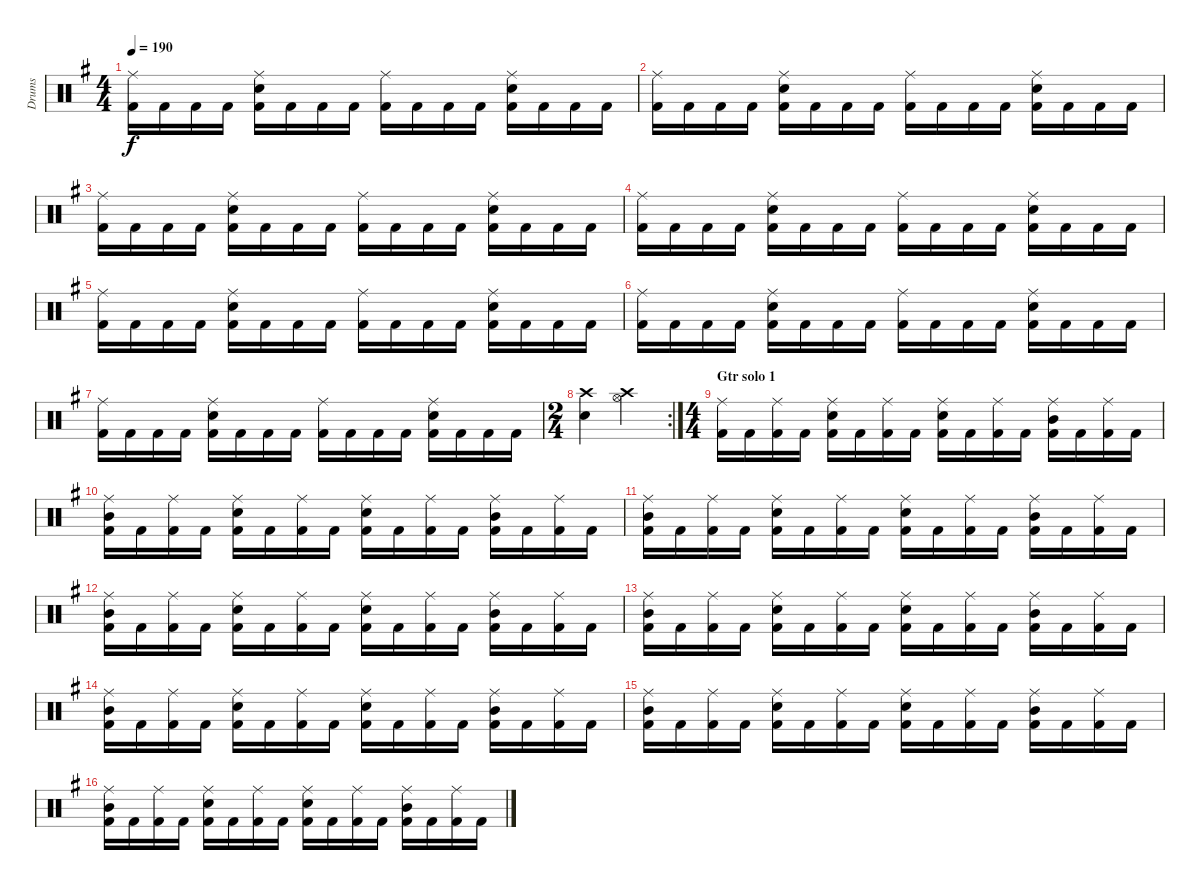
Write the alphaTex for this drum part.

\track ("Drums" "Drums") {instrument percussion}
\staff {score}
\articulation defaults
\ts (4 4)
\tempo 190
\clef neutral
\ks eminor
("Ride (middle)" "Kick (hit) 2").16{dy f} "Kick (hit) 2".16 "Kick (hit) 2".16 "Kick (hit) 2".16 ("Ride (middle)" "Electric Snare (hit)" "Kick (hit) 2").16 "Kick (hit) 2".16 "Kick (hit) 2".16 "Kick (hit) 2".16 ("Ride (middle)" "Kick (hit) 2").16 "Kick (hit) 2".16 "Kick (hit) 2".16 "Kick (hit) 2".16 ("Ride (middle)" "Electric Snare (hit)" "Kick (hit) 2").16 "Kick (hit) 2".16 "Kick (hit) 2".16 "Kick (hit) 2".16 |
("Ride (middle)" "Kick (hit) 2").16 "Kick (hit) 2".16 "Kick (hit) 2".16 "Kick (hit) 2".16 ("Ride (middle)" "Electric Snare (hit)" "Kick (hit) 2").16 "Kick (hit) 2".16 "Kick (hit) 2".16 "Kick (hit) 2".16 ("Ride (middle)" "Kick (hit) 2").16 "Kick (hit) 2".16 "Kick (hit) 2".16 "Kick (hit) 2".16 ("Ride (middle)" "Electric Snare (hit)" "Kick (hit) 2").16 "Kick (hit) 2".16 "Kick (hit) 2".16 "Kick (hit) 2".16 |
("Ride (middle)" "Kick (hit) 2").16 "Kick (hit) 2".16 "Kick (hit) 2".16 "Kick (hit) 2".16 ("Ride (middle)" "Electric Snare (hit)" "Kick (hit) 2").16 "Kick (hit) 2".16 "Kick (hit) 2".16 "Kick (hit) 2".16 ("Ride (middle)" "Kick (hit) 2").16 "Kick (hit) 2".16 "Kick (hit) 2".16 "Kick (hit) 2".16 ("Ride (middle)" "Electric Snare (hit)" "Kick (hit) 2").16 "Kick (hit) 2".16 "Kick (hit) 2".16 "Kick (hit) 2".16 |
("Ride (middle)" "Kick (hit) 2").16 "Kick (hit) 2".16 "Kick (hit) 2".16 "Kick (hit) 2".16 ("Ride (middle)" "Electric Snare (hit)" "Kick (hit) 2").16 "Kick (hit) 2".16 "Kick (hit) 2".16 "Kick (hit) 2".16 ("Ride (middle)" "Kick (hit) 2").16 "Kick (hit) 2".16 "Kick (hit) 2".16 "Kick (hit) 2".16 ("Ride (middle)" "Electric Snare (hit)" "Kick (hit) 2").16 "Kick (hit) 2".16 "Kick (hit) 2".16 "Kick (hit) 2".16 |
("Ride (middle)" "Kick (hit) 2").16 "Kick (hit) 2".16 "Kick (hit) 2".16 "Kick (hit) 2".16 ("Ride (middle)" "Electric Snare (hit)" "Kick (hit) 2").16 "Kick (hit) 2".16 "Kick (hit) 2".16 "Kick (hit) 2".16 ("Ride (middle)" "Kick (hit) 2").16 "Kick (hit) 2".16 "Kick (hit) 2".16 "Kick (hit) 2".16 ("Ride (middle)" "Electric Snare (hit)" "Kick (hit) 2").16 "Kick (hit) 2".16 "Kick (hit) 2".16 "Kick (hit) 2".16 |
("Ride (middle)" "Kick (hit) 2").16 "Kick (hit) 2".16 "Kick (hit) 2".16 "Kick (hit) 2".16 ("Ride (middle)" "Electric Snare (hit)" "Kick (hit) 2").16 "Kick (hit) 2".16 "Kick (hit) 2".16 "Kick (hit) 2".16 ("Ride (middle)" "Kick (hit) 2").16 "Kick (hit) 2".16 "Kick (hit) 2".16 "Kick (hit) 2".16 ("Ride (middle)" "Electric Snare (hit)" "Kick (hit) 2").16 "Kick (hit) 2".16 "Kick (hit) 2".16 "Kick (hit) 2".16 |
("Ride (middle)" "Kick (hit) 2").16 "Kick (hit) 2".16 "Kick (hit) 2".16 "Kick (hit) 2".16 ("Ride (middle)" "Electric Snare (hit)" "Kick (hit) 2").16 "Kick (hit) 2".16 "Kick (hit) 2".16 "Kick (hit) 2".16 ("Ride (middle)" "Kick (hit) 2").16 "Kick (hit) 2".16 "Kick (hit) 2".16 "Kick (hit) 2".16 ("Ride (middle)" "Electric Snare (hit)" "Kick (hit) 2").16 "Kick (hit) 2".16 "Kick (hit) 2".16 "Kick (hit) 2".16 |
\rc 2
\ts (2 4)
("Crash high (hit)" "Electric Snare (hit)").4 ("Crash high (hit)" "Hi-Hat (open)").4 |
\ts (4 4)
\section ("" "Gtr solo 1")
("Ride (middle)" "Kick (hit) 2").16 "Kick (hit) 2".16 ("Ride (middle)" "Kick (hit) 2").16 "Kick (hit) 2".16 ("Ride (middle)" "Electric Snare (hit)" "Kick (hit) 2").16 "Kick (hit) 2".16 ("Ride (middle)" "Kick (hit) 2").16 "Kick (hit) 2".16 ("Ride (middle)" "Electric Snare (hit)" "Kick (hit) 2").16 "Kick (hit) 2".16 ("Ride (middle)" "Kick (hit) 2").16 "Kick (hit) 2".16 ("Ride (middle)" "Mid Tom (hit)" "Kick (hit) 2").16 "Kick (hit) 2".16 ("Ride (middle)" "Kick (hit) 2").16 "Kick (hit) 2".16 |
("Ride (middle)" "Mid Tom (hit)" "Kick (hit) 2").16 "Kick (hit) 2".16 ("Ride (middle)" "Kick (hit) 2").16 "Kick (hit) 2".16 ("Ride (middle)" "Electric Snare (hit)" "Kick (hit) 2").16 "Kick (hit) 2".16 ("Ride (middle)" "Kick (hit) 2").16 "Kick (hit) 2".16 ("Ride (middle)" "Electric Snare (hit)" "Kick (hit) 2").16 "Kick (hit) 2".16 ("Ride (middle)" "Kick (hit) 2").16 "Kick (hit) 2".16 ("Ride (middle)" "Mid Tom (hit)" "Kick (hit) 2").16 "Kick (hit) 2".16 ("Ride (middle)" "Kick (hit) 2").16 "Kick (hit) 2".16 |
("Ride (middle)" "Mid Tom (hit)" "Kick (hit) 2").16 "Kick (hit) 2".16 ("Ride (middle)" "Kick (hit) 2").16 "Kick (hit) 2".16 ("Ride (middle)" "Electric Snare (hit)" "Kick (hit) 2").16 "Kick (hit) 2".16 ("Ride (middle)" "Kick (hit) 2").16 "Kick (hit) 2".16 ("Ride (middle)" "Electric Snare (hit)" "Kick (hit) 2").16 "Kick (hit) 2".16 ("Ride (middle)" "Kick (hit) 2").16 "Kick (hit) 2".16 ("Ride (middle)" "Mid Tom (hit)" "Kick (hit) 2").16 "Kick (hit) 2".16 ("Ride (middle)" "Kick (hit) 2").16 "Kick (hit) 2".16 |
("Ride (middle)" "Mid Tom (hit)" "Kick (hit) 2").16 "Kick (hit) 2".16 ("Ride (middle)" "Kick (hit) 2").16 "Kick (hit) 2".16 ("Ride (middle)" "Electric Snare (hit)" "Kick (hit) 2").16 "Kick (hit) 2".16 ("Ride (middle)" "Kick (hit) 2").16 "Kick (hit) 2".16 ("Ride (middle)" "Electric Snare (hit)" "Kick (hit) 2").16 "Kick (hit) 2".16 ("Ride (middle)" "Kick (hit) 2").16 "Kick (hit) 2".16 ("Ride (middle)" "Mid Tom (hit)" "Kick (hit) 2").16 "Kick (hit) 2".16 ("Ride (middle)" "Kick (hit) 2").16 "Kick (hit) 2".16 |
("Ride (middle)" "Mid Tom (hit)" "Kick (hit) 2").16 "Kick (hit) 2".16 ("Ride (middle)" "Kick (hit) 2").16 "Kick (hit) 2".16 ("Ride (middle)" "Electric Snare (hit)" "Kick (hit) 2").16 "Kick (hit) 2".16 ("Ride (middle)" "Kick (hit) 2").16 "Kick (hit) 2".16 ("Ride (middle)" "Electric Snare (hit)" "Kick (hit) 2").16 "Kick (hit) 2".16 ("Ride (middle)" "Kick (hit) 2").16 "Kick (hit) 2".16 ("Ride (middle)" "Mid Tom (hit)" "Kick (hit) 2").16 "Kick (hit) 2".16 ("Ride (middle)" "Kick (hit) 2").16 "Kick (hit) 2".16 |
("Ride (middle)" "Mid Tom (hit)" "Kick (hit) 2").16 "Kick (hit) 2".16 ("Ride (middle)" "Kick (hit) 2").16 "Kick (hit) 2".16 ("Ride (middle)" "Electric Snare (hit)" "Kick (hit) 2").16 "Kick (hit) 2".16 ("Ride (middle)" "Kick (hit) 2").16 "Kick (hit) 2".16 ("Ride (middle)" "Electric Snare (hit)" "Kick (hit) 2").16 "Kick (hit) 2".16 ("Ride (middle)" "Kick (hit) 2").16 "Kick (hit) 2".16 ("Ride (middle)" "Mid Tom (hit)" "Kick (hit) 2").16 "Kick (hit) 2".16 ("Ride (middle)" "Kick (hit) 2").16 "Kick (hit) 2".16 |
("Ride (middle)" "Mid Tom (hit)" "Kick (hit) 2").16 "Kick (hit) 2".16 ("Ride (middle)" "Kick (hit) 2").16 "Kick (hit) 2".16 ("Ride (middle)" "Electric Snare (hit)" "Kick (hit) 2").16 "Kick (hit) 2".16 ("Ride (middle)" "Kick (hit) 2").16 "Kick (hit) 2".16 ("Ride (middle)" "Electric Snare (hit)" "Kick (hit) 2").16 "Kick (hit) 2".16 ("Ride (middle)" "Kick (hit) 2").16 "Kick (hit) 2".16 ("Ride (middle)" "Mid Tom (hit)" "Kick (hit) 2").16 "Kick (hit) 2".16 ("Ride (middle)" "Kick (hit) 2").16 "Kick (hit) 2".16 |
("Ride (middle)" "Mid Tom (hit)" "Kick (hit) 2").16 "Kick (hit) 2".16 ("Ride (middle)" "Kick (hit) 2").16 "Kick (hit) 2".16 ("Ride (middle)" "Electric Snare (hit)" "Kick (hit) 2").16 "Kick (hit) 2".16 ("Ride (middle)" "Kick (hit) 2").16 "Kick (hit) 2".16 ("Ride (middle)" "Electric Snare (hit)" "Kick (hit) 2").16 "Kick (hit) 2".16 ("Ride (middle)" "Kick (hit) 2").16 "Kick (hit) 2".16 ("Ride (middle)" "Mid Tom (hit)" "Kick (hit) 2").16 "Kick (hit) 2".16 ("Ride (middle)" "Kick (hit) 2").16 "Kick (hit) 2".16
